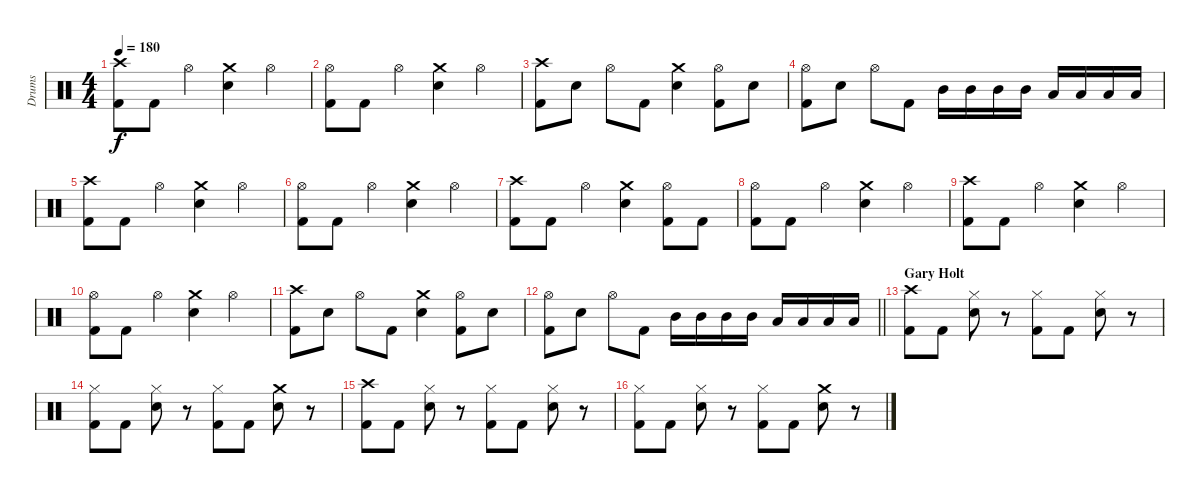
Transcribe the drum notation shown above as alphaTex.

\track ("Drums" "Drums") {instrument percussion}
\staff {score}
\articulation defaults
\ts (4 4)
\tempo 180
\clef neutral
\ks c
("Crash high (hit)" "Kick (hit) 2").8{dy f} "Kick (hit) 2".8 "Hi-Hat (open)".4 ("Crash medium (hit)" "Electric Snare (hit)").4 "Hi-Hat (open)".4 |
("Hi-Hat (open)" "Kick (hit) 2").8 "Kick (hit) 2".8 "Hi-Hat (open)".4 ("Crash medium (hit)" "Electric Snare (hit)").4 "Hi-Hat (open)".4 |
("Crash high (hit)" "Kick (hit) 2").8 "Electric Snare (hit)".8 "Hi-Hat (open)".8 "Kick (hit) 2".8 ("Crash medium (hit)" "Electric Snare (hit)").4 ("Hi-Hat (open)" "Kick (hit) 2").8 "Electric Snare (hit)".8 |
("Hi-Hat (open)" "Kick (hit) 2").8 "Electric Snare (hit)".8 "Hi-Hat (open)".8 "Kick (hit) 2".8 "Mid Tom (hit)".16 "Mid Tom (hit)".16 "Mid Tom (hit)".16 "Mid Tom (hit)".16 "Low Tom (hit)".16 "Low Tom (hit)".16 "Low Tom (hit)".16 "Low Tom (hit)".16 |
("Crash high (hit)" "Kick (hit) 2").8 "Kick (hit) 2".8 "Hi-Hat (open)".4 ("Crash medium (hit)" "Electric Snare (hit)").4 "Hi-Hat (open)".4 |
("Hi-Hat (open)" "Kick (hit) 2").8 "Kick (hit) 2".8 "Hi-Hat (open)".4 ("Crash medium (hit)" "Electric Snare (hit)").4 "Hi-Hat (open)".4 |
("Crash high (hit)" "Kick (hit) 2").8 "Kick (hit) 2".8 "Hi-Hat (open)".4 ("Crash medium (hit)" "Electric Snare (hit)").4 ("Hi-Hat (open)" "Kick (hit) 2").8 "Kick (hit) 2".8 |
("Hi-Hat (open)" "Kick (hit) 2").8 "Kick (hit) 2".8 "Hi-Hat (open)".4 ("Crash medium (hit)" "Electric Snare (hit)").4 "Hi-Hat (open)".4 |
("Crash high (hit)" "Kick (hit) 2").8 "Kick (hit) 2".8 "Hi-Hat (open)".4 ("Crash medium (hit)" "Electric Snare (hit)").4 "Hi-Hat (open)".4 |
("Hi-Hat (open)" "Kick (hit) 2").8 "Kick (hit) 2".8 "Hi-Hat (open)".4 ("Crash medium (hit)" "Electric Snare (hit)").4 "Hi-Hat (open)".4 |
("Crash high (hit)" "Kick (hit) 2").8 "Electric Snare (hit)".8 "Hi-Hat (open)".8 "Kick (hit) 2".8 ("Crash medium (hit)" "Electric Snare (hit)").4 ("Hi-Hat (open)" "Kick (hit) 2").8 "Electric Snare (hit)".8 |
\barLineRight lightlight
("Hi-Hat (open)" "Kick (hit) 2").8 "Electric Snare (hit)".8 "Hi-Hat (open)".8 "Kick (hit) 2".8 "Mid Tom (hit)".16 "Mid Tom (hit)".16 "Mid Tom (hit)".16 "Mid Tom (hit)".16 "Low Tom (hit)".16 "Low Tom (hit)".16 "Low Tom (hit)".16 "Low Tom (hit)".16 |
\section ("" "Gary Holt")
("Crash high (hit)" "Kick (hit) 2").8 "Kick (hit) 2".8 ("Hi-Hat (closed)" "Electric Snare (hit)").8 r.8 ("Hi-Hat (closed)" "Kick (hit) 2").8 "Kick (hit) 2".8 ("Hi-Hat (closed)" "Electric Snare (hit)").8 r.8 |
("Hi-Hat (closed)" "Kick (hit) 2").8 "Kick (hit) 2".8 ("Hi-Hat (closed)" "Electric Snare (hit)").8 r.8 ("Hi-Hat (closed)" "Kick (hit) 2").8 "Kick (hit) 2".8 ("Crash medium (hit)" "Electric Snare (hit)").8 r.8 |
("Crash high (hit)" "Kick (hit) 2").8 "Kick (hit) 2".8 ("Hi-Hat (closed)" "Electric Snare (hit)").8 r.8 ("Hi-Hat (closed)" "Kick (hit) 2").8 "Kick (hit) 2".8 ("Hi-Hat (closed)" "Electric Snare (hit)").8 r.8 |
("Hi-Hat (closed)" "Kick (hit) 2").8 "Kick (hit) 2".8 ("Hi-Hat (closed)" "Electric Snare (hit)").8 r.8 ("Hi-Hat (closed)" "Kick (hit) 2").8 "Kick (hit) 2".8 ("Crash medium (hit)" "Electric Snare (hit)").8 r.8
